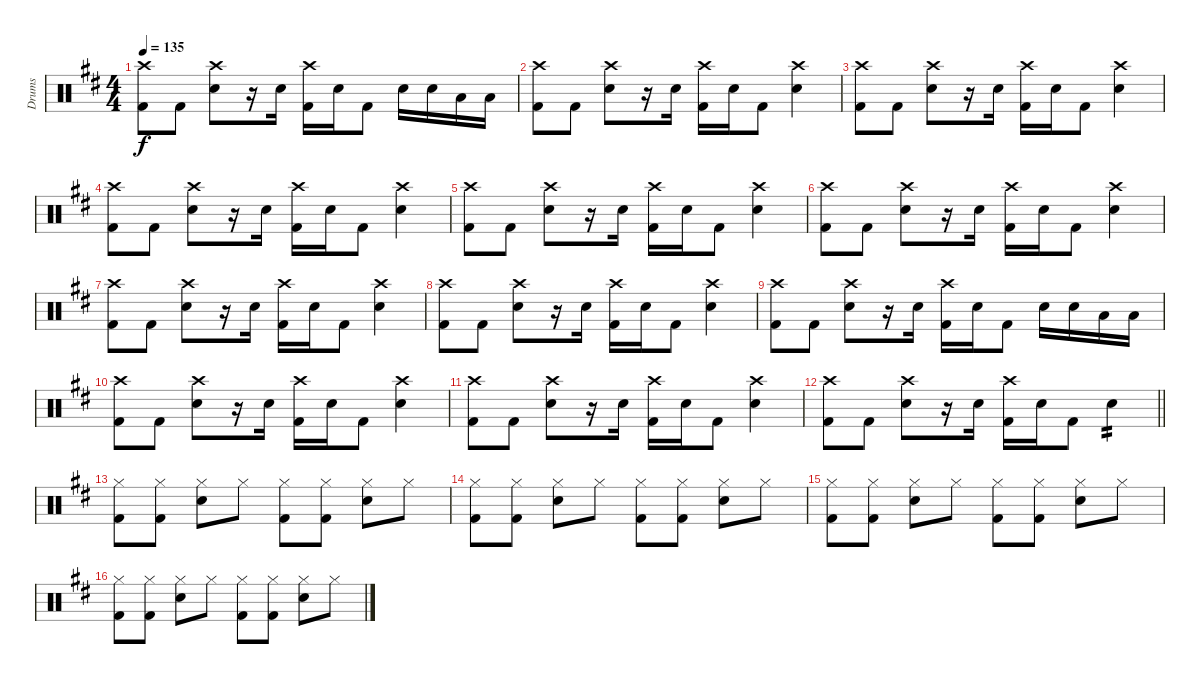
\track ("Drums" "Drums") {instrument percussion}
\staff {score}
\articulation defaults
\ts (4 4)
\tempo 135
\clef neutral
\ks d
("Crash high (hit)" "Kick (hit) 2").8{dy f} "Kick (hit) 2".8 ("Crash high (hit)" "Snare (hit) 2").8 r.16 "Snare (hit) 2".16 ("Crash high (hit)" "Kick (hit) 2").16 "Snare (hit) 2".16 "Kick (hit) 2".8 "Snare (hit) 2".16 "Snare (hit) 2".16 "Low Tom (hit)".16 "Low Tom (hit)".16 |
("Crash high (hit)" "Kick (hit) 2").8 "Kick (hit) 2".8 ("Crash high (hit)" "Snare (hit) 2").8 r.16 "Snare (hit) 2".16 ("Crash high (hit)" "Kick (hit) 2").16 "Snare (hit) 2".16 "Kick (hit) 2".8 ("Crash high (hit)" "Snare (hit) 2").4 |
("Crash high (hit)" "Kick (hit) 2").8 "Kick (hit) 2".8 ("Crash high (hit)" "Snare (hit) 2").8 r.16 "Snare (hit) 2".16 ("Crash high (hit)" "Kick (hit) 2").16 "Snare (hit) 2".16 "Kick (hit) 2".8 ("Crash high (hit)" "Snare (hit) 2").4 |
("Crash high (hit)" "Kick (hit) 2").8 "Kick (hit) 2".8 ("Crash high (hit)" "Snare (hit) 2").8 r.16 "Snare (hit) 2".16 ("Crash high (hit)" "Kick (hit) 2").16 "Snare (hit) 2".16 "Kick (hit) 2".8 ("Crash high (hit)" "Snare (hit) 2").4 |
("Crash high (hit)" "Kick (hit) 2").8 "Kick (hit) 2".8 ("Crash high (hit)" "Snare (hit) 2").8 r.16 "Snare (hit) 2".16 ("Crash high (hit)" "Kick (hit) 2").16 "Snare (hit) 2".16 "Kick (hit) 2".8 ("Crash high (hit)" "Snare (hit) 2").4 |
("Crash high (hit)" "Kick (hit) 2").8 "Kick (hit) 2".8 ("Crash high (hit)" "Snare (hit) 2").8 r.16 "Snare (hit) 2".16 ("Crash high (hit)" "Kick (hit) 2").16 "Snare (hit) 2".16 "Kick (hit) 2".8 ("Crash high (hit)" "Snare (hit) 2").4 |
("Crash high (hit)" "Kick (hit) 2").8 "Kick (hit) 2".8 ("Crash high (hit)" "Snare (hit) 2").8 r.16 "Snare (hit) 2".16 ("Crash high (hit)" "Kick (hit) 2").16 "Snare (hit) 2".16 "Kick (hit) 2".8 ("Crash high (hit)" "Snare (hit) 2").4 |
("Crash high (hit)" "Kick (hit) 2").8 "Kick (hit) 2".8 ("Crash high (hit)" "Snare (hit) 2").8 r.16 "Snare (hit) 2".16 ("Crash high (hit)" "Kick (hit) 2").16 "Snare (hit) 2".16 "Kick (hit) 2".8 ("Crash high (hit)" "Snare (hit) 2").4 |
("Crash high (hit)" "Kick (hit) 2").8 "Kick (hit) 2".8 ("Crash high (hit)" "Snare (hit) 2").8 r.16 "Snare (hit) 2".16 ("Crash high (hit)" "Kick (hit) 2").16 "Snare (hit) 2".16 "Kick (hit) 2".8 "Snare (hit) 2".16 "Snare (hit) 2".16 "Low Tom (hit)".16 "Low Tom (hit)".16 |
("Crash high (hit)" "Kick (hit) 2").8 "Kick (hit) 2".8 ("Crash high (hit)" "Snare (hit) 2").8 r.16 "Snare (hit) 2".16 ("Crash high (hit)" "Kick (hit) 2").16 "Snare (hit) 2".16 "Kick (hit) 2".8 ("Crash high (hit)" "Snare (hit) 2").4 |
("Crash high (hit)" "Kick (hit) 2").8 "Kick (hit) 2".8 ("Crash high (hit)" "Snare (hit) 2").8 r.16 "Snare (hit) 2".16 ("Crash high (hit)" "Kick (hit) 2").16 "Snare (hit) 2".16 "Kick (hit) 2".8 ("Crash high (hit)" "Snare (hit) 2").4 |
\barLineRight lightlight
("Crash high (hit)" "Kick (hit) 2").8 "Kick (hit) 2".8 ("Crash high (hit)" "Snare (hit) 2").8 r.16 "Snare (hit) 2".16 ("Crash high (hit)" "Kick (hit) 2").16 "Snare (hit) 2".16 "Kick (hit) 2".8 "Snare (hit) 2".4{tp 2} |
("Hi-Hat (closed)" "Kick (hit) 2").8 ("Hi-Hat (closed)" "Kick (hit) 2").8 ("Hi-Hat (closed)" "Snare (hit) 2").8 "Hi-Hat (closed)".8 ("Hi-Hat (closed)" "Kick (hit) 2").8 ("Hi-Hat (closed)" "Kick (hit) 2").8 ("Hi-Hat (closed)" "Snare (hit) 2").8 "Hi-Hat (closed)".8 |
("Hi-Hat (closed)" "Kick (hit) 2").8 ("Hi-Hat (closed)" "Kick (hit) 2").8 ("Hi-Hat (closed)" "Snare (hit) 2").8 "Hi-Hat (closed)".8 ("Hi-Hat (closed)" "Kick (hit) 2").8 ("Hi-Hat (closed)" "Kick (hit) 2").8 ("Hi-Hat (closed)" "Snare (hit) 2").8 "Hi-Hat (closed)".8 |
("Hi-Hat (closed)" "Kick (hit) 2").8 ("Hi-Hat (closed)" "Kick (hit) 2").8 ("Hi-Hat (closed)" "Snare (hit) 2").8 "Hi-Hat (closed)".8 ("Hi-Hat (closed)" "Kick (hit) 2").8 ("Hi-Hat (closed)" "Kick (hit) 2").8 ("Hi-Hat (closed)" "Snare (hit) 2").8 "Hi-Hat (closed)".8 |
("Hi-Hat (closed)" "Kick (hit) 2").8 ("Hi-Hat (closed)" "Kick (hit) 2").8 ("Hi-Hat (closed)" "Snare (hit) 2").8 "Hi-Hat (closed)".8 ("Hi-Hat (closed)" "Kick (hit) 2").8 ("Hi-Hat (closed)" "Kick (hit) 2").8 ("Hi-Hat (closed)" "Snare (hit) 2").8 "Hi-Hat (closed)".8
